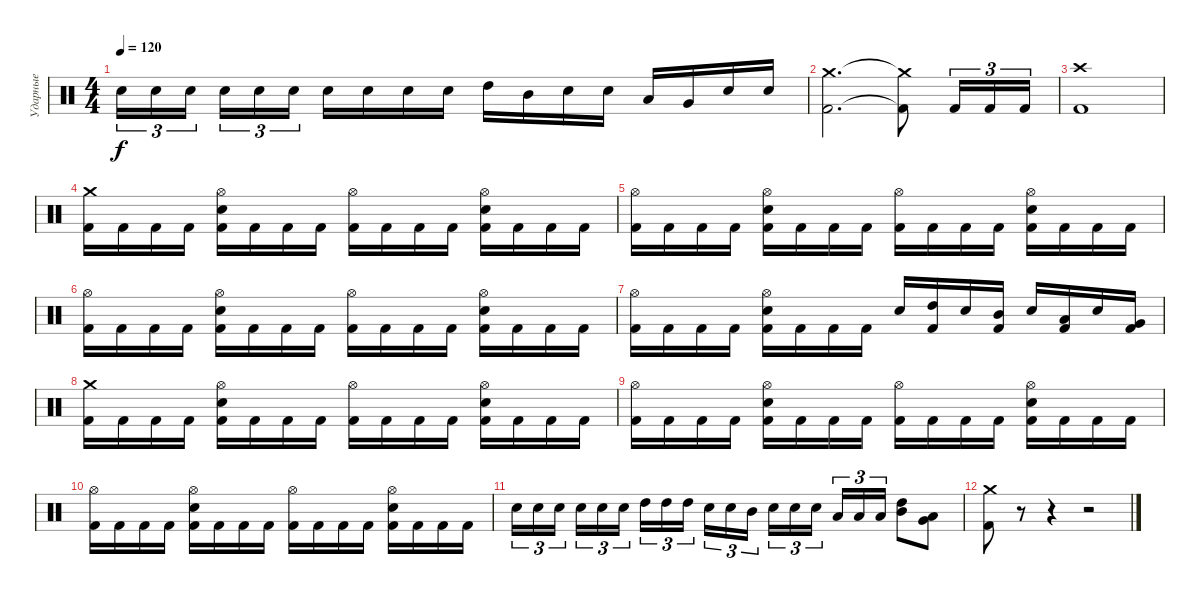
\track ("Ударные" "Ударные") {instrument percussion}
\staff {score}
\articulation defaults
\ts (4 4)
\tempo 120
\clef neutral
\ks c "Electric Snare (hit)".16{tu (3 2) dy f} "Electric Snare (hit)".16{tu (3 2)} "Electric Snare (hit)".16{tu (3 2) beam splitsecondary} "Electric Snare (hit)".16{tu (3 2)} "Electric Snare (hit)".16{tu (3 2)} "Electric Snare (hit)".16{tu (3 2)} "Electric Snare (hit)".16 "Electric Snare (hit)".16 "Electric Snare (hit)".16 "Electric Snare (hit)".16 "High Tom (hit)".16 "Mid Tom (hit)".16 "Electric Snare (hit)".16 "Electric Snare (hit)".16 "Low Tom (hit)".16 "Very Low Tom (hit)".16 "Electric Snare (hit)".16 "Electric Snare (hit)".16
|
("Crash medium (hit)" "Kick (hit) 2").2{d} ("Crash medium (hit)"{t} "Kick (hit) 2"{t}).8 "Kick (hit) 2".16{tu (3 2)} "Kick (hit) 2".16{tu (3 2)} "Kick (hit) 2".16{tu (3 2)} |
("Crash high (hit)" "Kick (hit) 2").1 |
("Crash medium (hit)" "Kick (hit) 2").16 "Kick (hit) 2".16 "Kick (hit) 2".16 "Kick (hit) 2".16 ("Hi-Hat (open)" "Electric Snare (hit)" "Kick (hit) 2").16 "Kick (hit) 2".16 "Kick (hit) 2".16 "Kick (hit) 2".16 ("Hi-Hat (open)" "Kick (hit) 2").16 "Kick (hit) 2".16 "Kick (hit) 2".16 "Kick (hit) 2".16 ("Hi-Hat (open)" "Electric Snare (hit)" "Kick (hit) 2").16 "Kick (hit) 2".16 "Kick (hit) 2".16 "Kick (hit) 2".16 |
("Hi-Hat (open)" "Kick (hit) 2").16 "Kick (hit) 2".16 "Kick (hit) 2".16 "Kick (hit) 2".16 ("Hi-Hat (open)" "Electric Snare (hit)" "Kick (hit) 2").16 "Kick (hit) 2".16 "Kick (hit) 2".16 "Kick (hit) 2".16 ("Hi-Hat (open)" "Kick (hit) 2").16 "Kick (hit) 2".16 "Kick (hit) 2".16 "Kick (hit) 2".16 ("Hi-Hat (open)" "Electric Snare (hit)" "Kick (hit) 2").16 "Kick (hit) 2".16 "Kick (hit) 2".16 "Kick (hit) 2".16 |
("Hi-Hat (open)" "Kick (hit) 2").16 "Kick (hit) 2".16 "Kick (hit) 2".16 "Kick (hit) 2".16 ("Hi-Hat (open)" "Electric Snare (hit)" "Kick (hit) 2").16 "Kick (hit) 2".16 "Kick (hit) 2".16 "Kick (hit) 2".16 ("Hi-Hat (open)" "Kick (hit) 2").16 "Kick (hit) 2".16 "Kick (hit) 2".16 "Kick (hit) 2".16 ("Hi-Hat (open)" "Electric Snare (hit)" "Kick (hit) 2").16 "Kick (hit) 2".16 "Kick (hit) 2".16 "Kick (hit) 2".16 |
("Hi-Hat (open)" "Kick (hit) 2").16 "Kick (hit) 2".16 "Kick (hit) 2".16 "Kick (hit) 2".16 ("Hi-Hat (open)" "Electric Snare (hit)" "Kick (hit) 2").16 "Kick (hit) 2".16 "Kick (hit) 2".16 "Kick (hit) 2".16 "Electric Snare (hit)".16 ("High Tom (hit)" "Kick (hit) 2").16 "Electric Snare (hit)".16 ("Mid Tom (hit)" "Kick (hit) 2").16 "Electric Snare (hit)".16 ("Low Tom (hit)" "Kick (hit) 2").16 "Electric Snare (hit)".16 ("Very Low Tom (hit)" "Kick (hit) 2").16 |
("Crash medium (hit)" "Kick (hit) 2").16 "Kick (hit) 2".16 "Kick (hit) 2".16 "Kick (hit) 2".16 ("Hi-Hat (open)" "Electric Snare (hit)" "Kick (hit) 2").16 "Kick (hit) 2".16 "Kick (hit) 2".16 "Kick (hit) 2".16 ("Hi-Hat (open)" "Kick (hit) 2").16 "Kick (hit) 2".16 "Kick (hit) 2".16 "Kick (hit) 2".16 ("Hi-Hat (open)" "Electric Snare (hit)" "Kick (hit) 2").16 "Kick (hit) 2".16 "Kick (hit) 2".16 "Kick (hit) 2".16 |
("Hi-Hat (open)" "Kick (hit) 2").16 "Kick (hit) 2".16 "Kick (hit) 2".16 "Kick (hit) 2".16 ("Hi-Hat (open)" "Electric Snare (hit)" "Kick (hit) 2").16 "Kick (hit) 2".16 "Kick (hit) 2".16 "Kick (hit) 2".16 ("Hi-Hat (open)" "Kick (hit) 2").16 "Kick (hit) 2".16 "Kick (hit) 2".16 "Kick (hit) 2".16 ("Hi-Hat (open)" "Electric Snare (hit)" "Kick (hit) 2").16 "Kick (hit) 2".16 "Kick (hit) 2".16 "Kick (hit) 2".16 |
("Hi-Hat (open)" "Kick (hit) 2").16 "Kick (hit) 2".16 "Kick (hit) 2".16 "Kick (hit) 2".16 ("Hi-Hat (open)" "Electric Snare (hit)" "Kick (hit) 2").16 "Kick (hit) 2".16 "Kick (hit) 2".16 "Kick (hit) 2".16 ("Hi-Hat (open)" "Kick (hit) 2").16 "Kick (hit) 2".16 "Kick (hit) 2".16 "Kick (hit) 2".16 ("Hi-Hat (open)" "Electric Snare (hit)" "Kick (hit) 2").16 "Kick (hit) 2".16 "Kick (hit) 2".16 "Kick (hit) 2".16 |
"Electric Snare (hit)".16{tu (3 2)} "Electric Snare (hit)".16{tu (3 2)} "Electric Snare (hit)".16{tu (3 2) beam splitsecondary} "Electric Snare (hit)".16{tu (3 2)} "Electric Snare (hit)".16{tu (3 2)} "Electric Snare (hit)".16{tu (3 2)} "High Tom (hit)".16{tu (3 2)} "High Tom (hit)".16{tu (3 2)} "High Tom (hit)".16{tu (3 2) beam splitsecondary} "Electric Snare (hit)".16{tu (3 2)} "Electric Snare (hit)".16{tu (3 2)} "Mid Tom (hit)".16{tu (3 2)} "Electric Snare (hit)".16{tu (3 2)} "Electric Snare (hit)".16{tu (3 2)} "Electric Snare (hit)".16{tu (3 2) beam splitsecondary} "Low Tom (hit)".16{tu (3 2)} "Low Tom (hit)".16{tu (3 2)} "Low Tom (hit)".16{tu (3 2)} ("High Tom (hit)" "Mid Tom (hit)").8 ("Low Tom (hit)" "Very Low Tom (hit)").8 |
("Crash medium (hit)" "Kick (hit) 2").8 r.8 r.4 r.2
